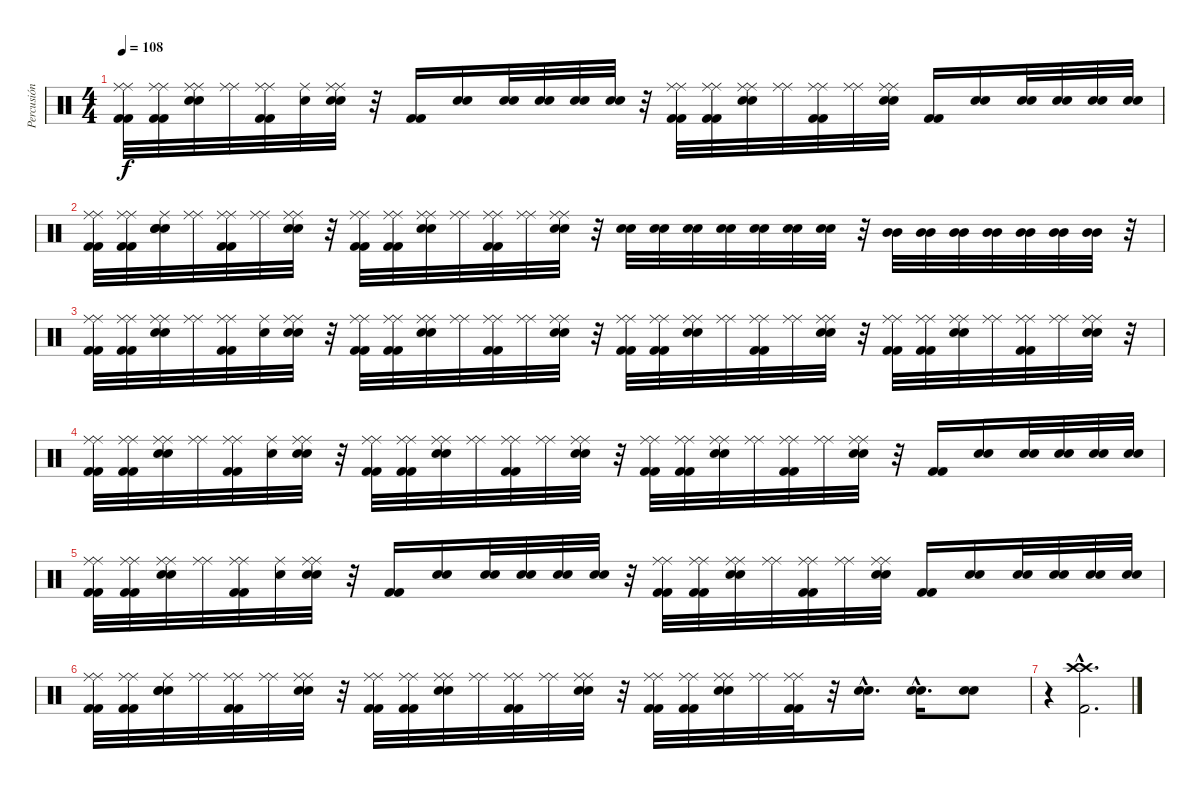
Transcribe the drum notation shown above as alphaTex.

\track ("Percusión" "Percusión") {instrument percussion}
\staff {score}
\articulation defaults
\ts (4 4)
\tempo 108
\clef neutral
\ks c
("Kick (hit) 2" "Kick (hit) 2" "Ride (middle)" "Ride (middle)").32{dy f} ("Kick (hit) 2" "Kick (hit) 2" "Ride (middle)" "Ride (middle)").32 ("Snare (hit) 2" "Snare (hit) 2" "Ride (middle)" "Ride (middle)").32 ("Ride (middle)" "Ride (middle)").32 ("Kick (hit) 2" "Kick (hit) 2" "Ride (middle)" "Ride (middle)").32 ("Ride (middle)" "Snare (hit)").32 ("Snare (hit) 2" "Snare (hit) 2" "Ride (middle)" "Ride (middle)").32 r.32 ("Kick (hit) 2" "Kick (hit) 2").16 ("Snare (hit) 2" "Snare (hit) 2").16 ("Snare (hit) 2" "Snare (hit) 2").32 ("Snare (hit) 2" "Snare (hit) 2").32 ("Snare (hit) 2" "Snare (hit) 2").32 ("Snare (hit) 2" "Snare (hit) 2").32 r.32 ("Kick (hit) 2" "Kick (hit) 2" "Ride (middle)" "Ride (middle)").32 ("Kick (hit) 2" "Kick (hit) 2" "Ride (middle)" "Ride (middle)").32 ("Snare (hit) 2" "Snare (hit) 2" "Ride (middle)" "Ride (middle)").32 ("Ride (middle)" "Ride (middle)").32 ("Kick (hit) 2" "Kick (hit) 2" "Ride (middle)" "Ride (middle)").32 ("Ride (middle)" "Ride (middle)").32 ("Snare (hit) 2" "Snare (hit) 2" "Ride (middle)" "Ride (middle)").32 ("Kick (hit) 2" "Kick (hit) 2").16 ("Snare (hit) 2" "Snare (hit) 2").16 ("Snare (hit) 2" "Snare (hit) 2").32 ("Snare (hit) 2" "Snare (hit) 2").32 ("Snare (hit) 2" "Snare (hit) 2").32 ("Snare (hit) 2" "Snare (hit) 2").32 |
("Kick (hit) 2" "Kick (hit) 2" "Ride (middle)" "Ride (middle)").32 ("Kick (hit) 2" "Kick (hit) 2" "Ride (middle)" "Ride (middle)").32 ("Snare (hit) 2" "Snare (hit) 2" "Ride (middle)" "Snare (hit)").32 ("Ride (middle)" "Ride (middle)").32 ("Kick (hit) 2" "Kick (hit) 2" "Ride (middle)" "Ride (middle)").32 ("Ride (middle)" "Ride (middle)").32 ("Snare (hit) 2" "Snare (hit) 2" "Ride (middle)" "Ride (middle)").32 r.32 ("Kick (hit) 2" "Kick (hit) 2" "Ride (middle)" "Ride (middle)").32 ("Kick (hit) 2" "Kick (hit) 2" "Ride (middle)" "Ride (middle)").32 ("Snare (hit) 2" "Snare (hit) 2" "Ride (middle)" "Ride (middle)").32 ("Ride (middle)" "Ride (middle)").32 ("Kick (hit) 2" "Kick (hit) 2" "Ride (middle)" "Ride (middle)").32 ("Ride (middle)" "Ride (middle)").32 ("Snare (hit) 2" "Snare (hit) 2" "Ride (middle)" "Ride (middle)").32 r.32 ("Snare (hit) 2" "Snare (hit) 2").32 ("Snare (hit) 2" "Snare (hit) 2").32 ("Snare (hit) 2" "Snare (hit) 2").32 ("Snare (hit) 2" "Snare (hit) 2").32 ("Snare (hit) 2" "Snare (hit) 2").32 ("Snare (hit) 2" "Snare (hit) 2").32 ("Snare (hit) 2" "Snare (hit) 2").32 r.32 ("Mid Tom (hit)" "Mid Tom (hit)").32 ("Mid Tom (hit)" "Mid Tom (hit)").32 ("Mid Tom (hit)" "Mid Tom (hit)").32 ("Mid Tom (hit)" "Mid Tom (hit)").32 ("Mid Tom (hit)" "Mid Tom (hit)").32 ("Mid Tom (hit)" "Mid Tom (hit)").32 ("Mid Tom (hit)" "Mid Tom (hit)").32 r.32 |
("Kick (hit) 2" "Kick (hit) 2" "Ride (middle)" "Ride (middle)").32 ("Kick (hit) 2" "Kick (hit) 2" "Ride (middle)" "Ride (middle)").32 ("Snare (hit) 2" "Snare (hit) 2" "Ride (middle)" "Ride (middle)").32 ("Ride (middle)" "Ride (middle)").32 ("Kick (hit) 2" "Kick (hit) 2" "Ride (middle)" "Ride (middle)").32 ("Ride (middle)" "Snare (hit)").32 ("Snare (hit) 2" "Snare (hit) 2" "Ride (middle)" "Ride (middle)").32 r.32 ("Kick (hit) 2" "Kick (hit) 2" "Ride (middle)" "Ride (middle)").32 ("Kick (hit) 2" "Kick (hit) 2" "Ride (middle)" "Ride (middle)").32 ("Snare (hit) 2" "Snare (hit) 2" "Ride (middle)" "Ride (middle)").32 ("Ride (middle)" "Ride (middle)").32 ("Kick (hit) 2" "Kick (hit) 2" "Ride (middle)" "Ride (middle)").32 ("Ride (middle)" "Ride (middle)").32 ("Snare (hit) 2" "Snare (hit) 2" "Ride (middle)" "Ride (middle)").32 r.32 ("Kick (hit) 2" "Kick (hit) 2" "Ride (middle)" "Ride (middle)").32 ("Kick (hit) 2" "Kick (hit) 2" "Ride (middle)" "Ride (middle)").32 ("Snare (hit) 2" "Snare (hit) 2" "Ride (middle)" "Ride (middle)").32 ("Ride (middle)" "Ride (middle)").32 ("Kick (hit) 2" "Kick (hit) 2" "Ride (middle)" "Ride (middle)").32 ("Ride (middle)" "Ride (middle)").32 ("Snare (hit) 2" "Snare (hit) 2" "Ride (middle)" "Ride (middle)").32 r.32 ("Kick (hit) 2" "Kick (hit) 2" "Ride (middle)" "Ride (middle)").32 ("Kick (hit) 2" "Kick (hit) 2" "Ride (middle)" "Ride (middle)").32 ("Snare (hit) 2" "Snare (hit) 2" "Ride (middle)" "Ride (middle)").32 ("Ride (middle)" "Ride (middle)").32 ("Kick (hit) 2" "Kick (hit) 2" "Ride (middle)" "Ride (middle)").32 ("Ride (middle)" "Ride (middle)").32 ("Snare (hit) 2" "Snare (hit) 2" "Ride (middle)" "Ride (middle)").32 r.32 |
("Kick (hit) 2" "Kick (hit) 2" "Ride (middle)" "Ride (middle)").32 ("Kick (hit) 2" "Kick (hit) 2" "Ride (middle)" "Ride (middle)").32 ("Snare (hit) 2" "Snare (hit) 2" "Ride (middle)" "Ride (middle)").32 ("Ride (middle)" "Ride (middle)").32 ("Kick (hit) 2" "Kick (hit) 2" "Ride (middle)" "Ride (middle)").32 ("Ride (middle)" "Snare (hit)").32 ("Snare (hit) 2" "Snare (hit) 2" "Ride (middle)" "Ride (middle)").32 r.32 ("Kick (hit) 2" "Kick (hit) 2" "Ride (middle)" "Ride (middle)").32 ("Kick (hit) 2" "Kick (hit) 2" "Ride (middle)" "Ride (middle)").32 ("Snare (hit) 2" "Snare (hit) 2" "Ride (middle)" "Ride (middle)").32 ("Ride (middle)" "Ride (middle)").32 ("Kick (hit) 2" "Kick (hit) 2" "Ride (middle)" "Ride (middle)").32 ("Ride (middle)" "Ride (middle)").32 ("Snare (hit) 2" "Snare (hit) 2" "Ride (middle)" "Ride (middle)").32 r.32 ("Kick (hit) 2" "Kick (hit) 2" "Ride (middle)" "Ride (middle)").32 ("Kick (hit) 2" "Kick (hit) 2" "Ride (middle)" "Ride (middle)").32 ("Snare (hit) 2" "Snare (hit) 2" "Ride (middle)" "Ride (middle)").32 ("Ride (middle)" "Ride (middle)").32 ("Kick (hit) 2" "Kick (hit) 2" "Ride (middle)" "Ride (middle)").32 ("Ride (middle)" "Ride (middle)").32 ("Snare (hit) 2" "Snare (hit) 2" "Ride (middle)" "Ride (middle)").32 r.32 ("Kick (hit) 2" "Kick (hit) 2").16 ("Snare (hit) 2" "Snare (hit) 2").16 ("Snare (hit) 2" "Snare (hit) 2").32 ("Snare (hit) 2" "Snare (hit) 2").32 ("Snare (hit) 2" "Snare (hit) 2").32 ("Snare (hit) 2" "Snare (hit) 2").32 |
("Kick (hit) 2" "Kick (hit) 2" "Ride (middle)" "Ride (middle)").32 ("Kick (hit) 2" "Kick (hit) 2" "Ride (middle)" "Ride (middle)").32 ("Snare (hit) 2" "Snare (hit) 2" "Ride (middle)" "Ride (middle)").32 ("Ride (middle)" "Ride (middle)").32 ("Kick (hit) 2" "Kick (hit) 2" "Ride (middle)" "Ride (middle)").32 ("Ride (middle)" "Snare (hit)").32 ("Snare (hit) 2" "Snare (hit) 2" "Ride (middle)" "Ride (middle)").32 r.32 ("Kick (hit) 2" "Kick (hit) 2").16 ("Snare (hit) 2" "Snare (hit) 2").16 ("Snare (hit) 2" "Snare (hit) 2").32 ("Snare (hit) 2" "Snare (hit) 2").32 ("Snare (hit) 2" "Snare (hit) 2").32 ("Snare (hit) 2" "Snare (hit) 2").32 r.32 ("Kick (hit) 2" "Kick (hit) 2" "Ride (middle)" "Ride (middle)").32 ("Kick (hit) 2" "Kick (hit) 2" "Ride (middle)" "Ride (middle)").32 ("Snare (hit) 2" "Snare (hit) 2" "Ride (middle)" "Ride (middle)").32 ("Ride (middle)" "Ride (middle)").32 ("Kick (hit) 2" "Kick (hit) 2" "Ride (middle)" "Ride (middle)").32 ("Ride (middle)" "Ride (middle)").32 ("Snare (hit) 2" "Snare (hit) 2" "Ride (middle)" "Ride (middle)").32 ("Kick (hit) 2" "Kick (hit) 2").16 ("Snare (hit) 2" "Snare (hit) 2").16 ("Snare (hit) 2" "Snare (hit) 2").32 ("Snare (hit) 2" "Snare (hit) 2").32 ("Snare (hit) 2" "Snare (hit) 2").32 ("Snare (hit) 2" "Snare (hit) 2").32 |
("Kick (hit) 2" "Kick (hit) 2" "Ride (middle)" "Ride (middle)").32 ("Kick (hit) 2" "Kick (hit) 2" "Ride (middle)" "Ride (middle)").32 ("Snare (hit) 2" "Snare (hit) 2" "Ride (middle)" "Snare (hit)").32 ("Ride (middle)" "Ride (middle)").32 ("Kick (hit) 2" "Kick (hit) 2" "Ride (middle)" "Ride (middle)").32 ("Ride (middle)" "Ride (middle)").32 ("Snare (hit) 2" "Snare (hit) 2" "Ride (middle)" "Ride (middle)").32 r.32 ("Kick (hit) 2" "Kick (hit) 2" "Ride (middle)" "Ride (middle)").32 ("Kick (hit) 2" "Kick (hit) 2" "Ride (middle)" "Ride (middle)").32 ("Snare (hit) 2" "Snare (hit) 2" "Ride (middle)" "Ride (middle)").32 ("Ride (middle)" "Ride (middle)").32 ("Kick (hit) 2" "Kick (hit) 2" "Ride (middle)" "Ride (middle)").32 ("Ride (middle)" "Ride (middle)").32 ("Snare (hit) 2" "Snare (hit) 2" "Ride (middle)" "Ride (middle)").32 r.32 ("Kick (hit) 2" "Kick (hit) 2" "Ride (middle)" "Ride (middle)").32 ("Kick (hit) 2" "Kick (hit) 2" "Ride (middle)" "Ride (middle)").32 ("Snare (hit) 2" "Snare (hit) 2" "Ride (middle)" "Ride (middle)").32 ("Ride (middle)" "Ride (middle)").32 ("Kick (hit) 2" "Kick (hit) 2" "Ride (middle)" "Ride (middle)").32 r.32 ("Snare (hit) 2"{hac} "Snare (hit) 2"{hac}).16{d} ("Snare (hit) 2"{hac} "Snare (hit) 2"{hac}).16{d} ("Snare (hit) 2" "Snare (hit) 2").8 |
r.4 ("Crash high (hit)"{hac} "Crash high (hit)"{hac} "Kick (hit) 2"{hac}).2{d}
